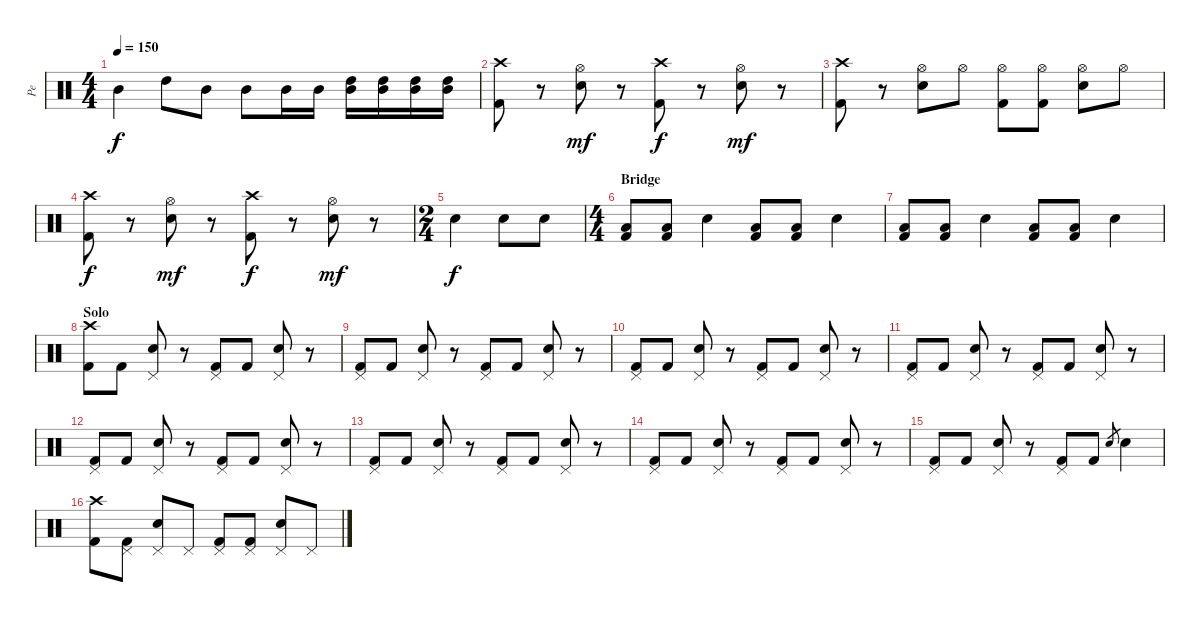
\track ("Pe" "Pe") {instrument percussion}
\staff {score}
\articulation defaults
\ts (4 4)
\tempo 150
\clef neutral
\ks c "Mid Tom (hit)".4{dy f} "High Tom (hit)".8 "Mid Tom (hit)".8 "Mid Tom (hit)".8 "Mid Tom (hit)".16 "Mid Tom (hit)".16
("Mid Tom (hit)" "High Tom (hit)").16 ("Mid Tom (hit)" "High Tom (hit)").16 ("Mid Tom (hit)" "High Tom (hit)").16 ("Mid Tom (hit)" "High Tom (hit)").16 |
("Crash high (hit)" "Kick (hit) 2").8 r.8 ("Hi-Hat (open)" "Snare (hit) 2").8{dy mf} r.8 ("Crash high (hit)" "Kick (hit) 2").8{dy f} r.8 ("Hi-Hat (open)" "Snare (hit) 2").8{dy mf} r.8 |
("Crash high (hit)" "Kick (hit) 2").8 r.8 ("Hi-Hat (open)" "Snare (hit) 2").8 "Hi-Hat (open)".8 ("Hi-Hat (open)" "Kick (hit) 2").8 ("Hi-Hat (open)" "Kick (hit) 2").8 ("Hi-Hat (open)" "Snare (hit) 2").8 "Hi-Hat (open)".8 |
("Crash high (hit)" "Kick (hit) 2").8{dy f} r.8 ("Hi-Hat (open)" "Snare (hit) 2").8{dy mf} r.8 ("Crash high (hit)" "Kick (hit) 2").8{dy f} r.8 ("Hi-Hat (open)" "Snare (hit) 2").8{dy mf} r.8 |
\ts (2 4)
"Snare (hit) 2".4{dy f} "Snare (hit) 2".8 "Snare (hit) 2".8 |
\ts (4 4)
\section ("" "Bridge")
("Low Tom (hit)" "Kick (hit) 2").8 ("Low Tom (hit)" "Kick (hit) 2").8 "Snare (hit) 2".4 ("Low Tom (hit)" "Kick (hit) 2").8 ("Low Tom (hit)" "Kick (hit) 2").8 "Snare (hit) 2".4 |
("Low Tom (hit)" "Kick (hit) 2").8 ("Low Tom (hit)" "Kick (hit) 2").8 "Snare (hit) 2".4 ("Low Tom (hit)" "Kick (hit) 2").8 ("Low Tom (hit)" "Kick (hit) 2").8 "Snare (hit) 2".4 |
\section ("" "Solo")
("Crash high (hit)" "Kick (hit) 2").8 "Kick (hit) 2".8 ("Pedal Hi-Hat (hit)" "Snare (hit) 2").8 r.8 ("Pedal Hi-Hat (hit)" "Kick (hit) 2").8 "Kick (hit) 2".8 ("Pedal Hi-Hat (hit)" "Snare (hit) 2").8 r.8 |
("Pedal Hi-Hat (hit)" "Kick (hit) 2").8 "Kick (hit) 2".8 ("Pedal Hi-Hat (hit)" "Snare (hit) 2").8 r.8 ("Pedal Hi-Hat (hit)" "Kick (hit) 2").8 "Kick (hit) 2".8 ("Pedal Hi-Hat (hit)" "Snare (hit) 2").8 r.8 |
("Pedal Hi-Hat (hit)" "Kick (hit) 2").8 "Kick (hit) 2".8 ("Pedal Hi-Hat (hit)" "Snare (hit) 2").8 r.8 ("Pedal Hi-Hat (hit)" "Kick (hit) 2").8 "Kick (hit) 2".8 ("Pedal Hi-Hat (hit)" "Snare (hit) 2").8 r.8 |
("Pedal Hi-Hat (hit)" "Kick (hit) 2").8 "Kick (hit) 2".8 ("Pedal Hi-Hat (hit)" "Snare (hit) 2").8 r.8 ("Pedal Hi-Hat (hit)" "Kick (hit) 2").8 "Kick (hit) 2".8 ("Pedal Hi-Hat (hit)" "Snare (hit) 2").8 r.8 |
("Pedal Hi-Hat (hit)" "Kick (hit) 2").8 "Kick (hit) 2".8 ("Pedal Hi-Hat (hit)" "Snare (hit) 2").8 r.8 ("Pedal Hi-Hat (hit)" "Kick (hit) 2").8 "Kick (hit) 2".8 ("Pedal Hi-Hat (hit)" "Snare (hit) 2").8 r.8 |
("Pedal Hi-Hat (hit)" "Kick (hit) 2").8 "Kick (hit) 2".8 ("Pedal Hi-Hat (hit)" "Snare (hit) 2").8 r.8 ("Pedal Hi-Hat (hit)" "Kick (hit) 2").8 "Kick (hit) 2".8 ("Pedal Hi-Hat (hit)" "Snare (hit) 2").8 r.8 |
("Pedal Hi-Hat (hit)" "Kick (hit) 2").8 "Kick (hit) 2".8 ("Pedal Hi-Hat (hit)" "Snare (hit) 2").8 r.8 ("Pedal Hi-Hat (hit)" "Kick (hit) 2").8 "Kick (hit) 2".8 ("Pedal Hi-Hat (hit)" "Snare (hit) 2").8 r.8 |
("Pedal Hi-Hat (hit)" "Kick (hit) 2").8 "Kick (hit) 2".8 ("Pedal Hi-Hat (hit)" "Snare (hit) 2").8 r.8 ("Pedal Hi-Hat (hit)" "Kick (hit) 2").8 "Kick (hit) 2".8 "Snare (hit) 2".8{gr} "Snare (hit) 2".4 |
("Crash high (hit)" "Kick (hit) 2").8 ("Pedal Hi-Hat (hit)" "Kick (hit) 2").8 ("Pedal Hi-Hat (hit)" "Snare (hit) 2").8 "Pedal Hi-Hat (hit)".8 ("Pedal Hi-Hat (hit)" "Kick (hit) 2").8 ("Pedal Hi-Hat (hit)" "Kick (hit) 2").8 ("Pedal Hi-Hat (hit)" "Snare (hit) 2").8 "Pedal Hi-Hat (hit)".8
